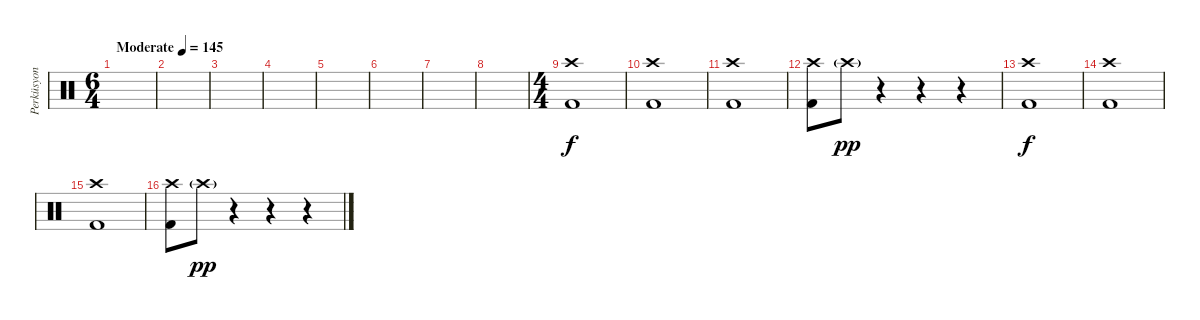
\track ("Perküsyon" "Perküsyon") {instrument percussion}
\staff {score}
\articulation defaults
\ts (6 4)
\tempo (145 "Moderate")
\clef neutral
\ks c
|
|
|
|
|
|
|
|
\ts (4 4)
("Crash high (hit)" "Kick (hit) 2").1 |
("Crash high (hit)" "Kick (hit) 2").1 |
("Crash high (hit)" "Kick (hit) 2").1 |
("Crash high (hit)" "Kick (hit) 2").8 "Crash high (hit)"{g}.8{dy pp} r.4 r.4 r.4 |
("Crash high (hit)" "Kick (hit) 2").1{dy f} |
("Crash high (hit)" "Kick (hit) 2").1 |
("Crash high (hit)" "Kick (hit) 2").1 |
("Crash high (hit)" "Kick (hit) 2").8 "Crash high (hit)"{g}.8{dy pp} r.4 r.4 r.4
